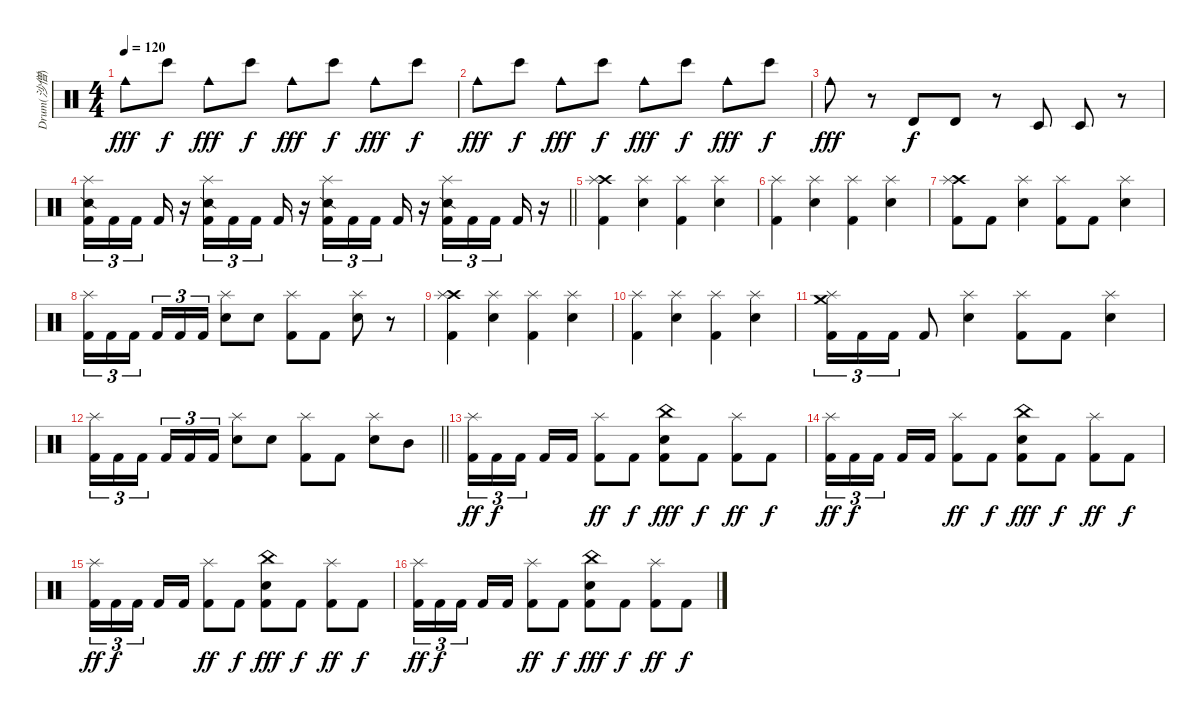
\track ("Drum(沙僧)" "Drum(沙僧)") {instrument percussion}
\staff {score}
\articulation defaults
\ts (4 4)
\tempo 120
\clef neutral
\ks c "Cowbell medium (hit)".8{dy fff} "Bongo High (hit)".8{dy f} "Cowbell medium (hit)".8{dy fff} "Bongo High (hit)".8{dy f} "Cowbell medium (hit)".8{dy fff} "Bongo High (hit)".8{dy f} "Cowbell medium (hit)".8{dy fff} "Bongo High (hit)".8{dy f}
|
"Cowbell medium (hit)".8{dy fff} "Bongo High (hit)".8{dy f} "Cowbell medium (hit)".8{dy fff} "Bongo High (hit)".8{dy f} "Cowbell medium (hit)".8{dy fff} "Bongo High (hit)".8{dy f} "Cowbell medium (hit)".8{dy fff} "Bongo High (hit)".8{dy f} |
"Cowbell medium (hit)".8{dy fff} r.8 "Timbale high (hit)".8{dy f} "Timbale high (hit)".8 r.8 "Timbale low (hit)".8 "Timbale low (hit)".8 r.8 |
\barLineRight lightlight
("Splash (hit)" "Snare (side stick) 2" "Kick (hit) 2").16{tu (3 2)} "Kick (hit) 2".16{tu (3 2)} "Kick (hit) 2".16{tu (3 2) beam splitsecondary} "Kick (hit) 2".16 r.16 ("Splash (hit)" "Snare (side stick) 2" "Kick (hit) 2").16{tu (3 2)} "Kick (hit) 2".16{tu (3 2)} "Kick (hit) 2".16{tu (3 2) beam splitsecondary} "Kick (hit) 2".16 r.16 ("Splash (hit)" "Snare (side stick) 2" "Kick (hit) 2").16{tu (3 2)} "Kick (hit) 2".16{tu (3 2)} "Kick (hit) 2".16{tu (3 2) beam splitsecondary} "Kick (hit) 2".16 r.16 ("Splash (hit)" "Snare (side stick) 2" "Kick (hit) 2").16{tu (3 2)} "Kick (hit) 2".16{tu (3 2)} "Kick (hit) 2".16{tu (3 2) beam splitsecondary} "Kick (hit) 2".16 r.16 |
("Crash high (hit)" "Splash (hit)" "Kick (hit) 2").4 ("Splash (hit)" "Snare (hit) 2").4 ("Splash (hit)" "Kick (hit) 2").4 ("Splash (hit)" "Snare (hit) 2").4 |
("Splash (hit)" "Kick (hit) 2").4 ("Splash (hit)" "Snare (hit) 2").4 ("Splash (hit)" "Kick (hit) 2").4 ("Splash (hit)" "Snare (hit) 2").4 |
("Crash high (hit)" "Splash (hit)" "Kick (hit) 2").8 "Kick (hit) 2".8 ("Splash (hit)" "Snare (hit) 2").4 ("Splash (hit)" "Kick (hit) 2").8 "Kick (hit) 2".8 ("Splash (hit)" "Snare (hit) 2").4 |
("Splash (hit)" "Kick (hit) 2").16{tu (3 2)} "Kick (hit) 2".16{tu (3 2)} "Kick (hit) 2".16{tu (3 2) beam splitsecondary} "Kick (hit) 2".16{tu (3 2)} "Kick (hit) 2".16{tu (3 2)} "Kick (hit) 2".16{tu (3 2)} ("Splash (hit)" "Snare (hit) 2").8 "Snare (hit) 2".8 ("Splash (hit)" "Kick (hit) 2").8 "Kick (hit) 2".8 ("Splash (hit)" "Snare (hit) 2").8 r.8 |
("Crash high (hit)" "Splash (hit)" "Kick (hit) 2").4 ("Splash (hit)" "Snare (hit) 2").4 ("Splash (hit)" "Kick (hit) 2").4 ("Splash (hit)" "Snare (hit) 2").4 |
("Splash (hit)" "Kick (hit) 2").4 ("Splash (hit)" "Snare (hit) 2").4 ("Splash (hit)" "Kick (hit) 2").4 ("Splash (hit)" "Snare (hit) 2").4 |
("Crash medium (hit)" "Splash (hit)" "Kick (hit) 2").16{tu (3 2)} "Kick (hit) 2".16{tu (3 2)} "Kick (hit) 2".16{tu (3 2)} "Kick (hit) 2".8 ("Splash (hit)" "Snare (hit) 2").4 ("Splash (hit)" "Kick (hit) 2").8 "Kick (hit) 2".8 ("Splash (hit)" "Snare (hit) 2").4 |
\barLineRight lightlight
("Splash (hit)" "Kick (hit) 2").16{tu (3 2)} "Kick (hit) 2".16{tu (3 2)} "Kick (hit) 2".16{tu (3 2) beam splitsecondary} "Kick (hit) 2".16{tu (3 2)} "Kick (hit) 2".16{tu (3 2)} "Kick (hit) 2".16{tu (3 2)} ("Splash (hit)" "Snare (hit) 2").8 "Snare (hit) 2".8 ("Splash (hit)" "Kick (hit) 2").8 "Kick (hit) 2".8 ("Splash (hit)" "Snare (hit) 2").8 "Mid Tom (hit)".8 |
("Splash (hit)" "Kick (hit) 2").16{tu (3 2) dy ff} "Kick (hit) 2".16{tu (3 2) dy f} "Kick (hit) 2".16{tu (3 2) beam splitsecondary} "Kick (hit) 2".16 "Kick (hit) 2".16 ("Splash (hit)" "Kick (hit) 2").8{dy ff} "Kick (hit) 2".8{dy f} ("China (hit)" "Snare (hit) 2" "Kick (hit) 2").8{dy fff} "Kick (hit) 2".8{dy f} ("Splash (hit)" "Kick (hit) 2").8{dy ff} "Kick (hit) 2".8{dy f} |
("Splash (hit)" "Kick (hit) 2").16{tu (3 2) dy ff} "Kick (hit) 2".16{tu (3 2) dy f} "Kick (hit) 2".16{tu (3 2) beam splitsecondary} "Kick (hit) 2".16 "Kick (hit) 2".16 ("Splash (hit)" "Kick (hit) 2").8{dy ff} "Kick (hit) 2".8{dy f} ("China (hit)" "Snare (hit) 2" "Kick (hit) 2").8{dy fff} "Kick (hit) 2".8{dy f} ("Splash (hit)" "Kick (hit) 2").8{dy ff} "Kick (hit) 2".8{dy f} |
("Splash (hit)" "Kick (hit) 2").16{tu (3 2) dy ff} "Kick (hit) 2".16{tu (3 2) dy f} "Kick (hit) 2".16{tu (3 2) beam splitsecondary} "Kick (hit) 2".16 "Kick (hit) 2".16 ("Splash (hit)" "Kick (hit) 2").8{dy ff} "Kick (hit) 2".8{dy f} ("China (hit)" "Snare (hit) 2" "Kick (hit) 2").8{dy fff} "Kick (hit) 2".8{dy f} ("Splash (hit)" "Kick (hit) 2").8{dy ff} "Kick (hit) 2".8{dy f} |
("Splash (hit)" "Kick (hit) 2").16{tu (3 2) dy ff} "Kick (hit) 2".16{tu (3 2) dy f} "Kick (hit) 2".16{tu (3 2) beam splitsecondary} "Kick (hit) 2".16 "Kick (hit) 2".16 ("Splash (hit)" "Kick (hit) 2").8{dy ff} "Kick (hit) 2".8{dy f} ("China (hit)" "Snare (hit) 2" "Kick (hit) 2").8{dy fff} "Kick (hit) 2".8{dy f} ("Splash (hit)" "Kick (hit) 2").8{dy ff} "Kick (hit) 2".8{dy f}
